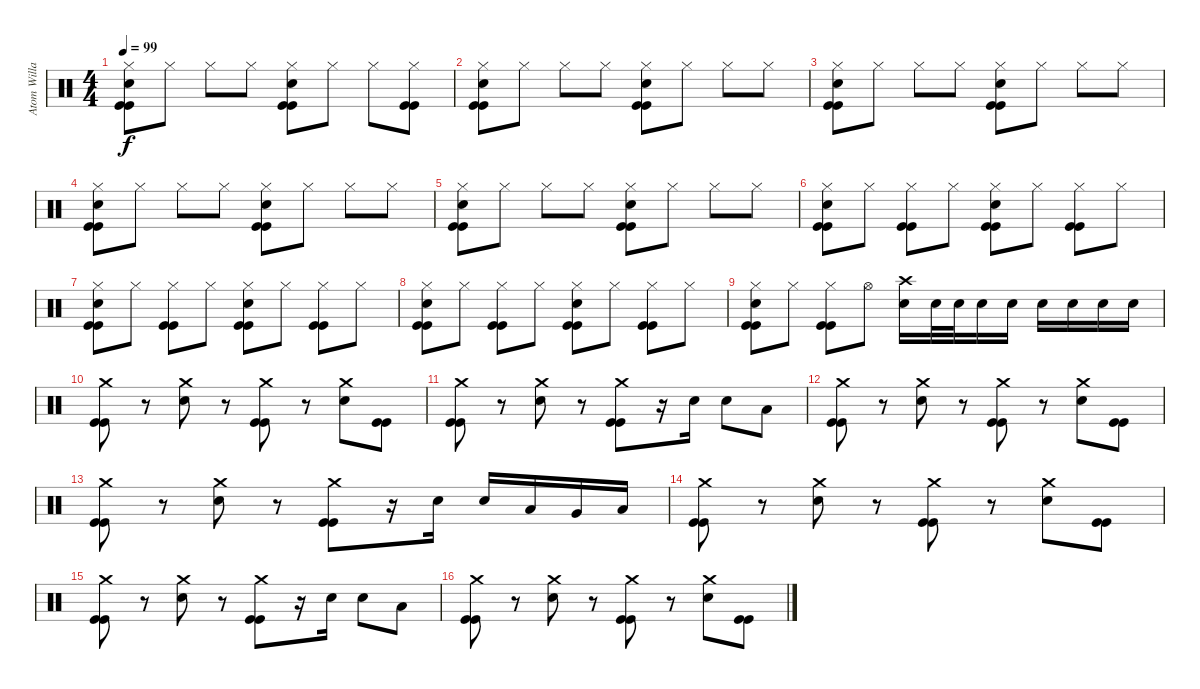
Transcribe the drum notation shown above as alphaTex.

\track ("Atom Willard" "Atom Willa") {instrument percussion}
\staff {score}
\articulation defaults
\ts (4 4)
\tempo 99
\clef neutral
\ks c
("Hi-Hat (closed)" "Hand Clap (hit)" "Kick (hit)" "Kick (hit)").8{dy f} "Hi-Hat (closed)".8 "Hi-Hat (closed)".8 "Hi-Hat (closed)".8 ("Hi-Hat (closed)" "Hand Clap (hit)" "Kick (hit)" "Kick (hit)").8 "Hi-Hat (closed)".8 "Hi-Hat (closed)".8 ("Hi-Hat (closed)" "Kick (hit)" "Kick (hit)").8 |
("Hi-Hat (closed)" "Hand Clap (hit)" "Kick (hit)" "Kick (hit)").8 "Hi-Hat (closed)".8 "Hi-Hat (closed)".8 "Hi-Hat (closed)".8 ("Hi-Hat (closed)" "Hand Clap (hit)" "Kick (hit)" "Kick (hit)").8 "Hi-Hat (closed)".8 "Hi-Hat (closed)".8 "Hi-Hat (closed)".8 |
("Hi-Hat (closed)" "Hand Clap (hit)" "Kick (hit)" "Kick (hit)").8 "Hi-Hat (closed)".8 "Hi-Hat (closed)".8 "Hi-Hat (closed)".8 ("Hi-Hat (closed)" "Hand Clap (hit)" "Kick (hit)" "Kick (hit)").8 "Hi-Hat (closed)".8 "Hi-Hat (closed)".8 "Hi-Hat (closed)".8 |
("Hi-Hat (closed)" "Hand Clap (hit)" "Kick (hit)" "Kick (hit)").8 "Hi-Hat (closed)".8 "Hi-Hat (closed)".8 "Hi-Hat (closed)".8 ("Hi-Hat (closed)" "Hand Clap (hit)" "Kick (hit)" "Kick (hit)").8 "Hi-Hat (closed)".8 "Hi-Hat (closed)".8 "Hi-Hat (closed)".8 |
("Hi-Hat (closed)" "Hand Clap (hit)" "Kick (hit)" "Kick (hit)").8 "Hi-Hat (closed)".8 "Hi-Hat (closed)".8 "Hi-Hat (closed)".8 ("Hi-Hat (closed)" "Hand Clap (hit)" "Kick (hit)" "Kick (hit)").8 "Hi-Hat (closed)".8 "Hi-Hat (closed)".8 "Hi-Hat (closed)".8 |
("Hi-Hat (closed)" "Hand Clap (hit)" "Kick (hit)" "Kick (hit)").8 "Hi-Hat (closed)".8 ("Hi-Hat (closed)" "Kick (hit)" "Kick (hit)").8 "Hi-Hat (closed)".8 ("Hi-Hat (closed)" "Hand Clap (hit)" "Kick (hit)" "Kick (hit)").8 "Hi-Hat (closed)".8 ("Hi-Hat (closed)" "Kick (hit)" "Kick (hit)").8 "Hi-Hat (closed)".8 |
("Hi-Hat (closed)" "Hand Clap (hit)" "Kick (hit)" "Kick (hit)").8 "Hi-Hat (closed)".8 ("Hi-Hat (closed)" "Kick (hit)" "Kick (hit)").8 "Hi-Hat (closed)".8 ("Hi-Hat (closed)" "Hand Clap (hit)" "Kick (hit)" "Kick (hit)").8 "Hi-Hat (closed)".8 ("Hi-Hat (closed)" "Kick (hit)" "Kick (hit)").8 "Hi-Hat (closed)".8 |
("Hi-Hat (closed)" "Hand Clap (hit)" "Kick (hit)" "Kick (hit)").8 "Hi-Hat (closed)".8 ("Hi-Hat (closed)" "Kick (hit)" "Kick (hit)").8 "Hi-Hat (closed)".8 ("Hi-Hat (closed)" "Hand Clap (hit)" "Kick (hit)" "Kick (hit)").8 "Hi-Hat (closed)".8 ("Hi-Hat (closed)" "Kick (hit)" "Kick (hit)").8 "Hi-Hat (closed)".8 |
("Hi-Hat (closed)" "Hand Clap (hit)" "Kick (hit)" "Kick (hit)").8 "Hi-Hat (closed)".8 ("Hi-Hat (closed)" "Kick (hit)" "Kick (hit)").8 "Hi-Hat (open)".8 ("Crash high (hit)" "Electric Snare (hit)").16 "Electric Snare (hit)".32 "Electric Snare (hit)".32 "Electric Snare (hit)".16 "Electric Snare (hit)".16 "Electric Snare (hit)".16 "Electric Snare (hit)".16 "Electric Snare (hit)".16 "Electric Snare (hit)".16 |
("Crash medium (hit)" "Kick (hit)" "Kick (hit)").8 r.8 ("Crash medium (hit)" "Electric Snare (hit)").8 r.8 ("Crash medium (hit)" "Kick (hit)" "Kick (hit)").8 r.8 ("Crash medium (hit)" "Electric Snare (hit)").8 ("Kick (hit)" "Kick (hit)").8 |
("Crash medium (hit)" "Kick (hit)" "Kick (hit)").8 r.8 ("Crash medium (hit)" "Electric Snare (hit)").8 r.8 ("Crash medium (hit)" "Kick (hit)" "Kick (hit)").8 r.16 "Electric Snare (hit)".16 "Electric Snare (hit)".8 "Low Tom (hit)".8 |
("Crash medium (hit)" "Kick (hit)" "Kick (hit)").8 r.8 ("Crash medium (hit)" "Electric Snare (hit)").8 r.8 ("Crash medium (hit)" "Kick (hit)" "Kick (hit)").8 r.8 ("Crash medium (hit)" "Electric Snare (hit)").8 ("Kick (hit)" "Kick (hit)").8 |
("Crash medium (hit)" "Kick (hit)" "Kick (hit)").8 r.8 ("Crash medium (hit)" "Electric Snare (hit)").8 r.8 ("Crash medium (hit)" "Kick (hit)" "Kick (hit)").8 r.16 "Electric Snare (hit)".16 "Electric Snare (hit)".16 "Low Tom (hit)".16 "Very Low Tom (hit)".16 "Low Floor Tom (hit)".16 |
("Crash medium (hit)" "Kick (hit)" "Kick (hit)").8 r.8 ("Crash medium (hit)" "Electric Snare (hit)").8 r.8 ("Crash medium (hit)" "Kick (hit)" "Kick (hit)").8 r.8 ("Crash medium (hit)" "Electric Snare (hit)").8 ("Kick (hit)" "Kick (hit)").8 |
("Crash medium (hit)" "Kick (hit)" "Kick (hit)").8 r.8 ("Crash medium (hit)" "Electric Snare (hit)").8 r.8 ("Crash medium (hit)" "Kick (hit)" "Kick (hit)").8 r.16 "Electric Snare (hit)".16 "Electric Snare (hit)".8 "Low Tom (hit)".8 |
("Crash medium (hit)" "Kick (hit)" "Kick (hit)").8 r.8 ("Crash medium (hit)" "Electric Snare (hit)").8 r.8 ("Crash medium (hit)" "Kick (hit)" "Kick (hit)").8 r.8 ("Crash medium (hit)" "Electric Snare (hit)").8 ("Kick (hit)" "Kick (hit)").8
